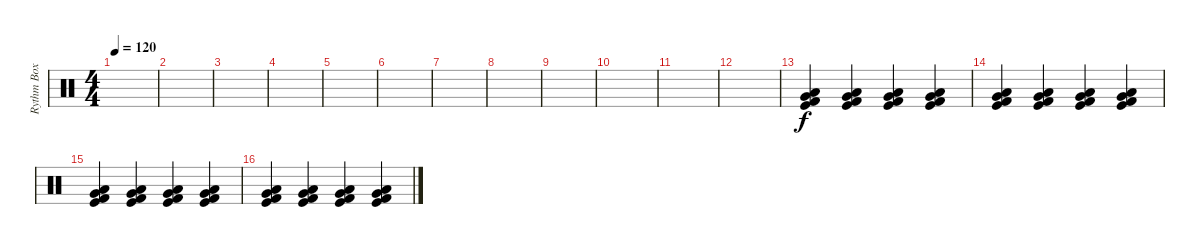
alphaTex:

\track ("Rythm Box" "Rythm Box") {instrument percussion}
\staff {score}
\articulation defaults
\ts (4 4)
\tempo 120
\clef neutral
\ks c
|
|
|
|
|
|
|
|
|
|
|
|
("Low Floor Tom (hit)" "Very Low Tom (hit)" "Kick (hit) 2" "Kick (hit)").4 ("Low Floor Tom (hit)" "Very Low Tom (hit)" "Kick (hit) 2" "Kick (hit)").4 ("Low Floor Tom (hit)" "Very Low Tom (hit)" "Kick (hit) 2" "Kick (hit)").4 ("Low Floor Tom (hit)" "Very Low Tom (hit)" "Kick (hit) 2" "Kick (hit)").4 |
("Low Floor Tom (hit)" "Very Low Tom (hit)" "Kick (hit) 2" "Kick (hit)").4 ("Low Floor Tom (hit)" "Very Low Tom (hit)" "Kick (hit) 2" "Kick (hit)").4 ("Low Floor Tom (hit)" "Very Low Tom (hit)" "Kick (hit) 2" "Kick (hit)").4 ("Low Floor Tom (hit)" "Very Low Tom (hit)" "Kick (hit) 2" "Kick (hit)").4 |
("Low Floor Tom (hit)" "Very Low Tom (hit)" "Kick (hit) 2" "Kick (hit)").4 ("Low Floor Tom (hit)" "Very Low Tom (hit)" "Kick (hit) 2" "Kick (hit)").4 ("Low Floor Tom (hit)" "Very Low Tom (hit)" "Kick (hit) 2" "Kick (hit)").4 ("Low Floor Tom (hit)" "Very Low Tom (hit)" "Kick (hit) 2" "Kick (hit)").4 |
("Low Floor Tom (hit)" "Very Low Tom (hit)" "Kick (hit) 2" "Kick (hit)").4 ("Low Floor Tom (hit)" "Very Low Tom (hit)" "Kick (hit) 2" "Kick (hit)").4 ("Low Floor Tom (hit)" "Very Low Tom (hit)" "Kick (hit) 2" "Kick (hit)").4 ("Low Floor Tom (hit)" "Very Low Tom (hit)" "Kick (hit) 2" "Kick (hit)").4
